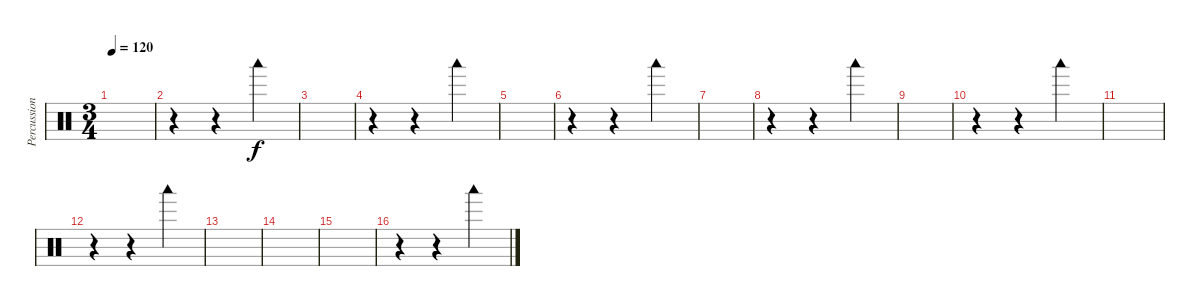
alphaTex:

\track ("Percussion" "Percussion") {instrument percussion}
\staff {score}
\articulation defaults
\ts (3 4)
\tempo 120
\clef neutral
\ks c
|
r.4 r.4 "Woodblock low (hit)".4 |
|
r.4 r.4 "Woodblock low (hit)".4 |
|
r.4 r.4 "Woodblock low (hit)".4 |
|
r.4 r.4 "Woodblock low (hit)".4 |
|
r.4 r.4 "Woodblock low (hit)".4 |
|
r.4 r.4 "Woodblock low (hit)".4 |
|
|
|
r.4 r.4 "Woodblock low (hit)".4
